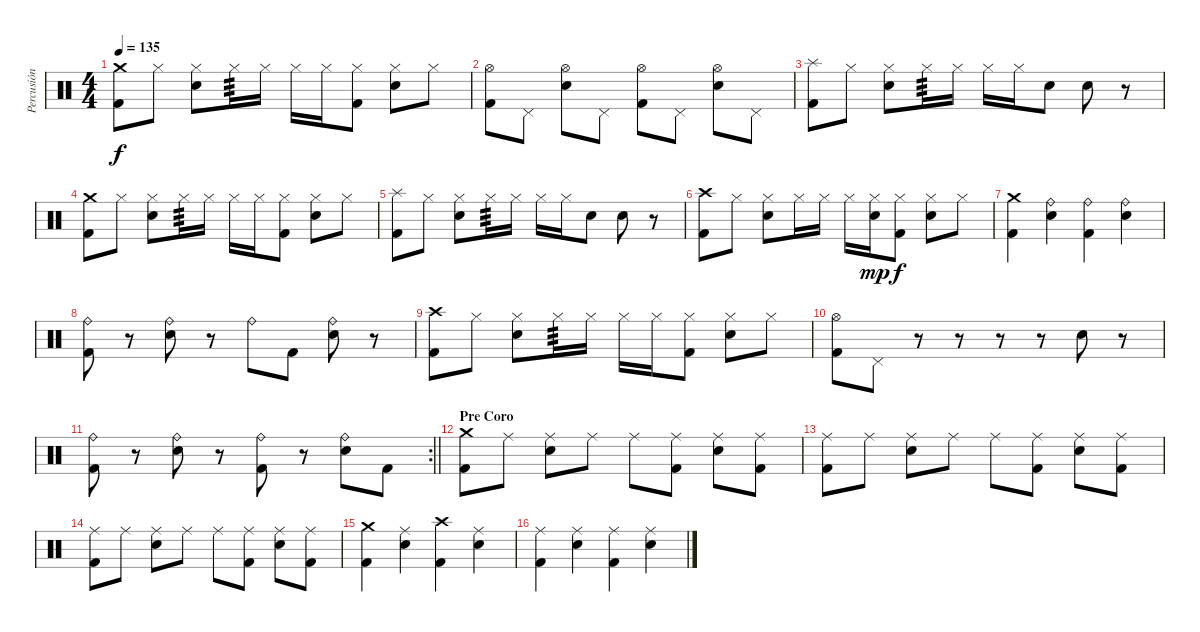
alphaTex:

\track ("Percusión" "Percusión") {instrument percussion}
\staff {score}
\articulation defaults
\ts (4 4)
\tempo 135
\clef neutral
\ks c
("Crash medium (hit)" "Kick (hit) 2").8{dy f} "Hi-Hat (closed)".8 ("Hi-Hat (closed)" "Electric Snare (hit)").8 "Hi-Hat (closed)".16{tp 3} "Hi-Hat (closed)".16 "Hi-Hat (closed)".16 "Hi-Hat (closed)".16 ("Hi-Hat (closed)" "Kick (hit) 2").8 ("Hi-Hat (closed)" "Electric Snare (hit)").8 "Hi-Hat (closed)".8 |
("Hi-Hat (open)" "Kick (hit) 2").8 "Pedal Hi-Hat (hit)".8 ("Hi-Hat (open)" "Electric Snare (hit)").8 "Pedal Hi-Hat (hit)".8 ("Hi-Hat (open)" "Kick (hit) 2").8 "Pedal Hi-Hat (hit)".8 ("Hi-Hat (open)" "Electric Snare (hit)").8 "Pedal Hi-Hat (hit)".8 |
("Splash (hit)" "Kick (hit) 2").8 "Hi-Hat (closed)".8 ("Hi-Hat (closed)" "Electric Snare (hit)").8 "Hi-Hat (closed)".16{tp 3} "Hi-Hat (closed)".16 "Hi-Hat (closed)".16 "Hi-Hat (closed)".16 "Electric Snare (hit)".8 "Electric Snare (hit)".8 r.8 |
("Crash medium (hit)" "Kick (hit) 2").8 "Hi-Hat (closed)".8 ("Hi-Hat (closed)" "Electric Snare (hit)").8 "Hi-Hat (closed)".16{tp 3} "Hi-Hat (closed)".16 "Hi-Hat (closed)".16 "Hi-Hat (closed)".16 ("Hi-Hat (closed)" "Kick (hit) 2").8 ("Hi-Hat (closed)" "Electric Snare (hit)").8 "Hi-Hat (closed)".8 |
("Splash (hit)" "Kick (hit) 2").8 "Hi-Hat (closed)".8 ("Hi-Hat (closed)" "Electric Snare (hit)").8 "Hi-Hat (closed)".16{tp 3} "Hi-Hat (closed)".16 "Hi-Hat (closed)".16 "Hi-Hat (closed)".16 "Electric Snare (hit)".8 "Electric Snare (hit)".8 r.8 |
("Crash high (hit)" "Kick (hit) 2").8 "Hi-Hat (closed)".8 ("Hi-Hat (closed)" "Electric Snare (hit)").8 "Hi-Hat (closed)".16 "Hi-Hat (closed)".16 "Hi-Hat (closed)".16 ("Hi-Hat (closed)" "Electric Snare (hit)").16{dy mp} ("Hi-Hat (closed)" "Kick (hit) 2").8{dy f} ("Hi-Hat (closed)" "Electric Snare (hit)").8 "Hi-Hat (closed)".8 |
("Crash medium (hit)" "Kick (hit) 2").4 ("Ride (bell)" "Electric Snare (hit)").4 ("Ride (bell)" "Kick (hit) 2").4 ("Ride (bell)" "Electric Snare (hit)").4 |
("Ride (bell)" "Kick (hit) 2").8 r.8 ("Ride (bell)" "Electric Snare (hit)").8 r.8 "Ride (bell)".8 "Kick (hit) 2".8 ("Ride (bell)" "Electric Snare (hit)").8 r.8 |
("Crash high (hit)" "Kick (hit) 2").8 "Hi-Hat (closed)".8 ("Hi-Hat (closed)" "Electric Snare (hit)").8 "Hi-Hat (closed)".16{tp 3} "Hi-Hat (closed)".16 "Hi-Hat (closed)".16 "Hi-Hat (closed)".16 ("Hi-Hat (closed)" "Kick (hit) 2").8 ("Hi-Hat (closed)" "Electric Snare (hit)").8 "Hi-Hat (closed)".8 |
("Hi-Hat (open)" "Kick (hit) 2").8 "Pedal Hi-Hat (hit)".8 r.8 r.8 r.8 r.8 "Electric Snare (hit)".8 r.8 |
\rc 2
\barLineRight lightlight
("Ride (bell)" "Kick (hit) 2").8 r.8 ("Ride (bell)" "Electric Snare (hit)").8 r.8 ("Ride (bell)" "Kick (hit) 2").8 r.8 ("Ride (bell)" "Electric Snare (hit)").8 "Kick (hit) 2".8 |
\section ("" "Pre Coro")
("Crash medium (hit)" "Kick (hit) 2").8 "Ride (middle)".8 ("Ride (middle)" "Electric Snare (hit)").8 "Ride (middle)".8 "Ride (middle)".8 ("Ride (middle)" "Kick (hit) 2").8 ("Ride (middle)" "Electric Snare (hit)").8 ("Ride (middle)" "Kick (hit) 2").8 |
("Ride (middle)" "Kick (hit) 2").8 "Ride (middle)".8 ("Ride (middle)" "Electric Snare (hit)").8 "Ride (middle)".8 "Ride (middle)".8 ("Ride (middle)" "Kick (hit) 2").8 ("Ride (middle)" "Electric Snare (hit)").8 ("Ride (middle)" "Kick (hit) 2").8 |
("Ride (middle)" "Kick (hit) 2").8 "Ride (middle)".8 ("Ride (middle)" "Electric Snare (hit)").8 "Ride (middle)".8 "Ride (middle)".8 ("Ride (middle)" "Kick (hit) 2").8 ("Ride (middle)" "Electric Snare (hit)").8 ("Ride (middle)" "Kick (hit) 2").8 |
("Crash medium (hit)" "Kick (hit) 2").4 ("Ride (middle)" "Electric Snare (hit)").4 ("Crash high (hit)" "Kick (hit) 2").4 ("Ride (middle)" "Electric Snare (hit)").4 |
("Ride (middle)" "Kick (hit) 2").4 ("Ride (middle)" "Electric Snare (hit)").4 ("Ride (middle)" "Kick (hit) 2").4 ("Ride (middle)" "Electric Snare (hit)").4
